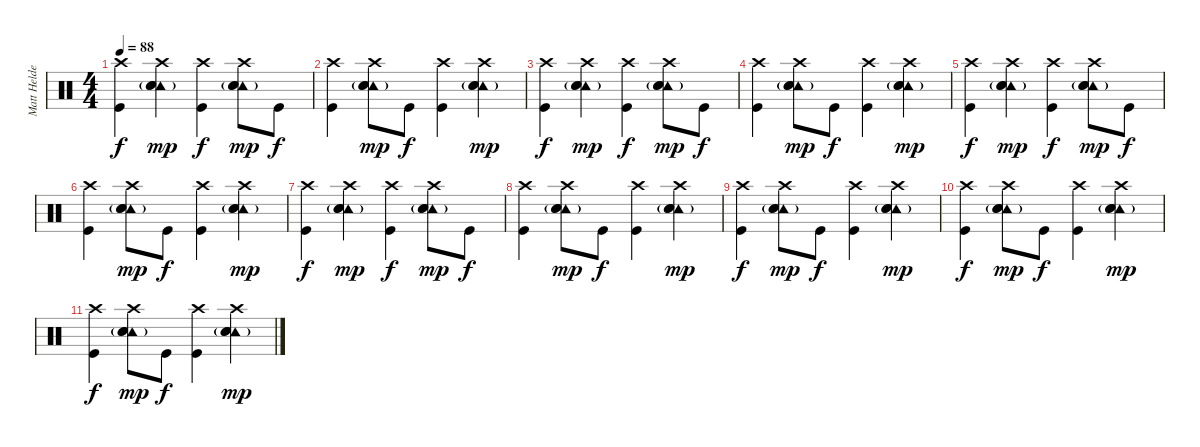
\track ("Matt Helders" "Matt Helde") {instrument percussion}
\staff {score}
\articulation defaults
\ts (4 4)
\tempo 88
\clef neutral
\ks c
("Crash high (hit)" "Kick (hit)").4{dy f} ("Crash high (hit)" "Tambourine (hit)" "Hand Clap (hit)"{g} "Snare (hit) 2").4{dy mp} ("Crash high (hit)" "Kick (hit)").4{dy f} ("Crash high (hit)" "Tambourine (hit)" "Hand Clap (hit)"{g} "Snare (hit) 2").8{dy mp} "Kick (hit)".8{dy f} |
("Crash high (hit)" "Kick (hit)").4 ("Crash high (hit)" "Tambourine (hit)" "Hand Clap (hit)"{g} "Snare (hit) 2").8{dy mp} "Kick (hit)".8{dy f} ("Crash high (hit)" "Kick (hit)").4 ("Crash high (hit)" "Tambourine (hit)" "Hand Clap (hit)"{g} "Snare (hit) 2").4{dy mp} |
("Crash high (hit)" "Kick (hit)").4{dy f} ("Crash high (hit)" "Tambourine (hit)" "Hand Clap (hit)"{g} "Snare (hit) 2").4{dy mp} ("Crash high (hit)" "Kick (hit)").4{dy f} ("Crash high (hit)" "Tambourine (hit)" "Hand Clap (hit)"{g} "Snare (hit) 2").8{dy mp} "Kick (hit)".8{dy f} |
("Crash high (hit)" "Kick (hit)").4 ("Crash high (hit)" "Tambourine (hit)" "Hand Clap (hit)"{g} "Snare (hit) 2").8{dy mp} "Kick (hit)".8{dy f} ("Crash high (hit)" "Kick (hit)").4 ("Crash high (hit)" "Tambourine (hit)" "Hand Clap (hit)"{g} "Snare (hit) 2").4{dy mp} |
("Crash high (hit)" "Kick (hit)").4{dy f} ("Crash high (hit)" "Tambourine (hit)" "Hand Clap (hit)"{g} "Snare (hit) 2").4{dy mp} ("Crash high (hit)" "Kick (hit)").4{dy f} ("Crash high (hit)" "Tambourine (hit)" "Hand Clap (hit)"{g} "Snare (hit) 2").8{dy mp} "Kick (hit)".8{dy f} |
("Crash high (hit)" "Kick (hit)").4 ("Crash high (hit)" "Tambourine (hit)" "Hand Clap (hit)"{g} "Snare (hit) 2").8{dy mp} "Kick (hit)".8{dy f} ("Crash high (hit)" "Kick (hit)").4 ("Crash high (hit)" "Tambourine (hit)" "Hand Clap (hit)"{g} "Snare (hit) 2").4{dy mp} |
("Crash high (hit)" "Kick (hit)").4{dy f} ("Crash high (hit)" "Tambourine (hit)" "Hand Clap (hit)"{g} "Snare (hit) 2").4{dy mp} ("Crash high (hit)" "Kick (hit)").4{dy f} ("Crash high (hit)" "Tambourine (hit)" "Hand Clap (hit)"{g} "Snare (hit) 2").8{dy mp} "Kick (hit)".8{dy f} |
("Crash high (hit)" "Kick (hit)").4 ("Crash high (hit)" "Tambourine (hit)" "Hand Clap (hit)"{g} "Snare (hit) 2").8{dy mp} "Kick (hit)".8{dy f} ("Crash high (hit)" "Kick (hit)").4 ("Crash high (hit)" "Tambourine (hit)" "Hand Clap (hit)"{g} "Snare (hit) 2").4{dy mp} |
("Crash high (hit)" "Kick (hit)").4{dy f} ("Crash high (hit)" "Tambourine (hit)" "Hand Clap (hit)"{g} "Snare (hit) 2").8{dy mp} "Kick (hit)".8{dy f} ("Crash high (hit)" "Kick (hit)").4 ("Crash high (hit)" "Tambourine (hit)" "Hand Clap (hit)"{g} "Snare (hit) 2").4{dy mp} |
("Crash high (hit)" "Kick (hit)").4{dy f} ("Crash high (hit)" "Tambourine (hit)" "Hand Clap (hit)"{g} "Snare (hit) 2").8{dy mp} "Kick (hit)".8{dy f} ("Crash high (hit)" "Kick (hit)").4 ("Crash high (hit)" "Tambourine (hit)" "Hand Clap (hit)"{g} "Snare (hit) 2").4{dy mp} |
("Crash high (hit)" "Kick (hit)").4{dy f} ("Crash high (hit)" "Tambourine (hit)" "Hand Clap (hit)"{g} "Snare (hit) 2").8{dy mp} "Kick (hit)".8{dy f} ("Crash high (hit)" "Kick (hit)").4 ("Crash high (hit)" "Tambourine (hit)" "Hand Clap (hit)"{g} "Snare (hit) 2").4{dy mp}
